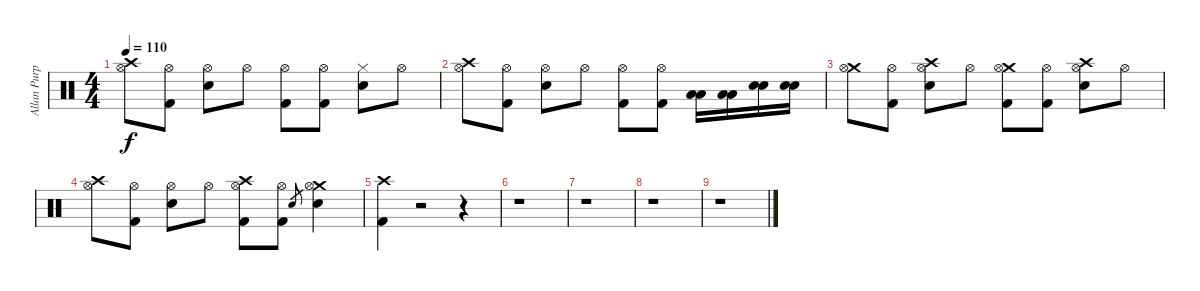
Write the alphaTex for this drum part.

\track ("Allan Purple" "Allan Purp") {instrument percussion}
\staff {score}
\articulation defaults
\ts (4 4)
\tempo 110
\clef neutral
\ks c
("Crash high (hit)" "Hi-Hat (open)").8{dy f} ("Hi-Hat (open)" "Kick (hit) 2").8 ("Hi-Hat (open)" "Electric Snare (hit)").8 "Hi-Hat (open)".8 ("Hi-Hat (open)" "Kick (hit) 2").8 ("Hi-Hat (open)" "Kick (hit) 2").8 ("Hi-Hat (closed)" "Electric Snare (hit)").8 "Hi-Hat (open)".8 |
("Crash high (hit)" "Hi-Hat (open)").8 ("Hi-Hat (open)" "Kick (hit) 2").8 ("Hi-Hat (open)" "Electric Snare (hit)").8 "Hi-Hat (open)".8 ("Hi-Hat (open)" "Kick (hit) 2").8 ("Hi-Hat (open)" "Kick (hit) 2").8 ("Low Tom (hit)" "Low Tom (hit)").16 ("Low Tom (hit)" "Low Tom (hit)").16 ("Electric Snare (hit)" "Electric Snare (hit)").16 ("Electric Snare (hit)" "Electric Snare (hit)").16 |
("Crash medium (hit)" "Hi-Hat (open)").8 ("Hi-Hat (open)" "Kick (hit) 2").8 ("Crash high (hit)" "Hi-Hat (open)" "Electric Snare (hit)").8 "Hi-Hat (open)".8 ("Crash medium (hit)" "Hi-Hat (open)" "Kick (hit) 2").8 ("Hi-Hat (open)" "Kick (hit) 2").8 ("Crash high (hit)" "Hi-Hat (open)" "Electric Snare (hit)").8 "Hi-Hat (open)".8 |
("Crash high (hit)" "Hi-Hat (open)").8 ("Hi-Hat (open)" "Kick (hit) 2").8 ("Hi-Hat (open)" "Electric Snare (hit)").8 "Hi-Hat (open)".8 ("Crash high (hit)" "Hi-Hat (open)" "Kick (hit) 2").8 ("Hi-Hat (open)" "Kick (hit) 2").8 "Electric Snare (hit)".8{gr} ("Crash medium (hit)" "Hi-Hat (open)" "Electric Snare (hit)").4 |
("Crash high (hit)" "Kick (hit) 2").4 r.2 r.4 |
r.1 |
r.1 |
r.1 |
r.1
